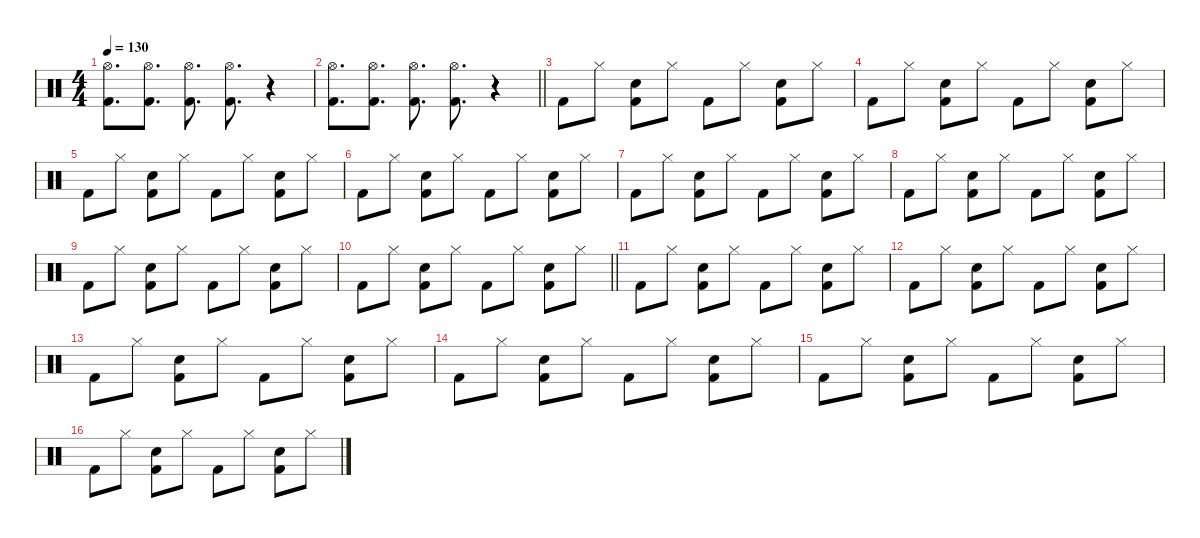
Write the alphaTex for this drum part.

\defaultSystemsLayout 4
\hideDynamics
\bracketExtendMode nobrackets
\singleTrackTrackNamePolicy hidden
\multiTrackTrackNamePolicy hidden
\otherSystemsTrackNameOrientation horizontal
\track ("Percussion" "drm.") {defaultSystemsLayout 4 instrument percussion}
\staff {score}
\articulation defaults
\ts (4 4)
\tempo 130
\clef neutral
\ks c
("Hi-Hat (open)" "Kick (hit) 2").8{d dy f beam Down} ("Hi-Hat (open)" "Kick (hit) 2").8{d beam Down} ("Hi-Hat (open)" "Kick (hit) 2").8{d beam Down} ("Hi-Hat (open)" "Kick (hit) 2").8{d beam Down} r.4{beam Down} |
\barLineRight lightlight
("Hi-Hat (open)" "Kick (hit) 2").8{d beam Down} ("Hi-Hat (open)" "Kick (hit) 2").8{d beam Down} ("Hi-Hat (open)" "Kick (hit) 2").8{d beam Down} ("Hi-Hat (open)" "Kick (hit) 2").8{d beam Down} r.4{beam Down} |
"Kick (hit) 2".8{beam Down} "Hi-Hat (closed)".8{beam Down} ("Snare (hit) 2" "Kick (hit) 2").8{beam Down} "Hi-Hat (closed)".8{beam Down} "Kick (hit) 2".8{beam Down} "Hi-Hat (closed)".8{beam Down} ("Snare (hit) 2" "Kick (hit) 2").8{beam Down} "Hi-Hat (closed)".8{beam Down} |
"Kick (hit) 2".8{beam Down} "Hi-Hat (closed)".8{beam Down} ("Snare (hit) 2" "Kick (hit) 2").8{beam Down} "Hi-Hat (closed)".8{beam Down} "Kick (hit) 2".8{beam Down} "Hi-Hat (closed)".8{beam Down} ("Snare (hit) 2" "Kick (hit) 2").8{beam Down} "Hi-Hat (closed)".8{beam Down} |
"Kick (hit) 2".8{beam Down} "Hi-Hat (closed)".8{beam Down} ("Snare (hit) 2" "Kick (hit) 2").8{beam Down} "Hi-Hat (closed)".8{beam Down} "Kick (hit) 2".8{beam Down} "Hi-Hat (closed)".8{beam Down} ("Snare (hit) 2" "Kick (hit) 2").8{beam Down} "Hi-Hat (closed)".8{beam Down} |
"Kick (hit) 2".8{beam Down} "Hi-Hat (closed)".8{beam Down} ("Snare (hit) 2" "Kick (hit) 2").8{beam Down} "Hi-Hat (closed)".8{beam Down} "Kick (hit) 2".8{beam Down} "Hi-Hat (closed)".8{beam Down} ("Snare (hit) 2" "Kick (hit) 2").8{beam Down} "Hi-Hat (closed)".8{beam Down} |
"Kick (hit) 2".8{beam Down} "Hi-Hat (closed)".8{beam Down} ("Snare (hit) 2" "Kick (hit) 2").8{beam Down} "Hi-Hat (closed)".8{beam Down} "Kick (hit) 2".8{beam Down} "Hi-Hat (closed)".8{beam Down} ("Snare (hit) 2" "Kick (hit) 2").8{beam Down} "Hi-Hat (closed)".8{beam Down} |
"Kick (hit) 2".8{beam Down} "Hi-Hat (closed)".8{beam Down} ("Snare (hit) 2" "Kick (hit) 2").8{beam Down} "Hi-Hat (closed)".8{beam Down} "Kick (hit) 2".8{beam Down} "Hi-Hat (closed)".8{beam Down} ("Snare (hit) 2" "Kick (hit) 2").8{beam Down} "Hi-Hat (closed)".8{beam Down} |
"Kick (hit) 2".8{beam Down} "Hi-Hat (closed)".8{beam Down} ("Snare (hit) 2" "Kick (hit) 2").8{beam Down} "Hi-Hat (closed)".8{beam Down} "Kick (hit) 2".8{beam Down} "Hi-Hat (closed)".8{beam Down} ("Snare (hit) 2" "Kick (hit) 2").8{beam Down} "Hi-Hat (closed)".8{beam Down} |
\barLineRight lightlight "Kick (hit) 2".8{beam Down} "Hi-Hat (closed)".8{beam Down}
("Snare (hit) 2" "Kick (hit) 2").8{beam Down} "Hi-Hat (closed)".8{beam Down} "Kick (hit) 2".8{beam Down} "Hi-Hat (closed)".8{beam Down} ("Snare (hit) 2" "Kick (hit) 2").8{beam Down} "Hi-Hat (closed)".8{beam Down} |
"Kick (hit) 2".8{beam Down} "Hi-Hat (closed)".8{beam Down} ("Snare (hit) 2" "Kick (hit) 2").8{beam Down} "Hi-Hat (closed)".8{beam Down} "Kick (hit) 2".8{beam Down} "Hi-Hat (closed)".8{beam Down} ("Snare (hit) 2" "Kick (hit) 2").8{beam Down} "Hi-Hat (closed)".8{beam Down} |
"Kick (hit) 2".8{beam Down} "Hi-Hat (closed)".8{beam Down} ("Snare (hit) 2" "Kick (hit) 2").8{beam Down} "Hi-Hat (closed)".8{beam Down} "Kick (hit) 2".8{beam Down} "Hi-Hat (closed)".8{beam Down} ("Snare (hit) 2" "Kick (hit) 2").8{beam Down} "Hi-Hat (closed)".8{beam Down} |
"Kick (hit) 2".8{beam Down} "Hi-Hat (closed)".8{beam Down} ("Snare (hit) 2" "Kick (hit) 2").8{beam Down} "Hi-Hat (closed)".8{beam Down} "Kick (hit) 2".8{beam Down} "Hi-Hat (closed)".8{beam Down} ("Snare (hit) 2" "Kick (hit) 2").8{beam Down} "Hi-Hat (closed)".8{beam Down} |
"Kick (hit) 2".8{beam Down} "Hi-Hat (closed)".8{beam Down} ("Snare (hit) 2" "Kick (hit) 2").8{beam Down} "Hi-Hat (closed)".8{beam Down} "Kick (hit) 2".8{beam Down} "Hi-Hat (closed)".8{beam Down} ("Snare (hit) 2" "Kick (hit) 2").8{beam Down} "Hi-Hat (closed)".8{beam Down} |
"Kick (hit) 2".8{beam Down} "Hi-Hat (closed)".8{beam Down} ("Snare (hit) 2" "Kick (hit) 2").8{beam Down} "Hi-Hat (closed)".8{beam Down} "Kick (hit) 2".8{beam Down} "Hi-Hat (closed)".8{beam Down} ("Snare (hit) 2" "Kick (hit) 2").8{beam Down} "Hi-Hat (closed)".8{beam Down} |
"Kick (hit) 2".8{beam Down} "Hi-Hat (closed)".8{beam Down} ("Snare (hit) 2" "Kick (hit) 2").8{beam Down} "Hi-Hat (closed)".8{beam Down} "Kick (hit) 2".8{beam Down} "Hi-Hat (closed)".8{beam Down} ("Snare (hit) 2" "Kick (hit) 2").8{beam Down} "Hi-Hat (closed)".8{beam Down}
